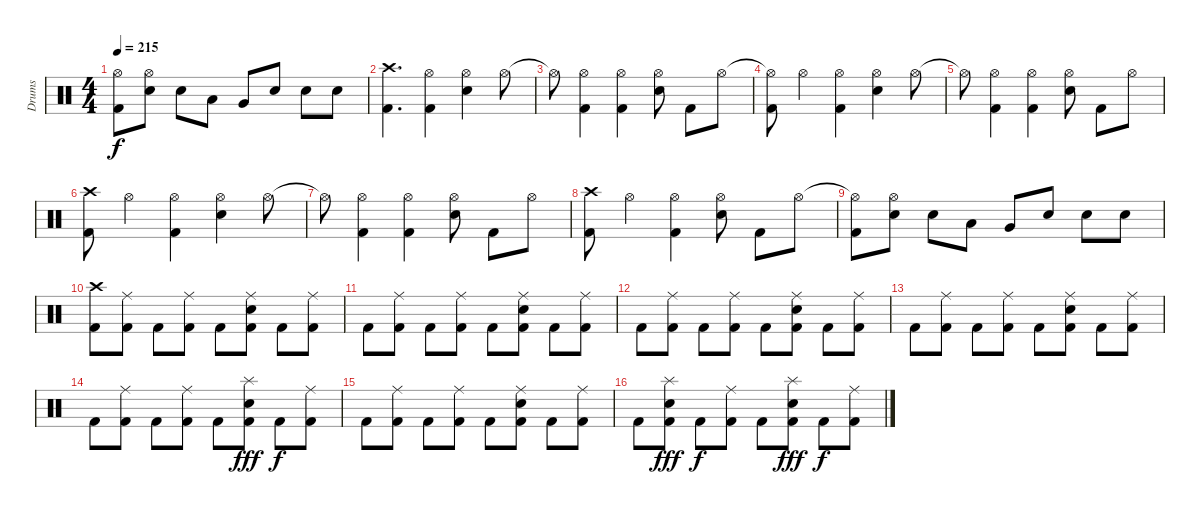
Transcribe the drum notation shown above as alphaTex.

\track ("Drums" "Drums") {instrument percussion}
\staff {score}
\articulation defaults
\ts (4 4)
\tempo 215
\clef neutral
\ks c
("Hi-Hat (open)"{t} "Kick (hit) 2").8{dy f} ("Hi-Hat (open)" "Snare (hit) 2").8 "Snare (hit) 2".8 "Low Tom (hit)".8 "Very Low Tom (hit)".8 "Snare (hit) 2".8 "Snare (hit) 2".8 "Snare (hit) 2".8 |
("Crash high (hit)" "Kick (hit) 2").4{d} ("Hi-Hat (open)" "Kick (hit) 2").4 ("Hi-Hat (open)" "Snare (hit) 2").4 "Hi-Hat (open)".8 |
"Hi-Hat (open)"{t}.8 ("Hi-Hat (open)" "Kick (hit) 2").4 ("Hi-Hat (open)" "Kick (hit) 2").4 ("Hi-Hat (open)" "Snare (hit) 2").8 "Kick (hit) 2".8 "Hi-Hat (open)".8 |
("Hi-Hat (open)"{t} "Kick (hit) 2").8 "Hi-Hat (open)".4 ("Hi-Hat (open)" "Kick (hit) 2").4 ("Hi-Hat (open)" "Snare (hit) 2").4 "Hi-Hat (open)".8 |
"Hi-Hat (open)"{t}.8 ("Hi-Hat (open)" "Kick (hit) 2").4 ("Hi-Hat (open)" "Kick (hit) 2").4 ("Hi-Hat (open)" "Snare (hit) 2").8 "Kick (hit) 2".8 "Hi-Hat (open)".8 |
("Crash high (hit)" "Kick (hit) 2").8 "Hi-Hat (open)".4 ("Hi-Hat (open)" "Kick (hit) 2").4 ("Hi-Hat (open)" "Snare (hit) 2").4 "Hi-Hat (open)".8 |
"Hi-Hat (open)"{t}.8 ("Hi-Hat (open)" "Kick (hit) 2").4 ("Hi-Hat (open)" "Kick (hit) 2").4 ("Hi-Hat (open)" "Snare (hit) 2").8 "Kick (hit) 2".8 "Hi-Hat (open)".8 |
("Crash high (hit)" "Kick (hit) 2").8 "Hi-Hat (open)".4 ("Hi-Hat (open)" "Kick (hit) 2").4 ("Hi-Hat (open)" "Snare (hit) 2").8 "Kick (hit) 2".8 "Hi-Hat (open)".8 |
("Hi-Hat (open)"{t} "Kick (hit) 2").8 ("Hi-Hat (open)" "Snare (hit) 2").8 "Snare (hit) 2".8 "Low Tom (hit)".8 "Very Low Tom (hit)".8 "Snare (hit) 2".8 "Snare (hit) 2".8 "Snare (hit) 2".8 |
("Crash high (hit)" "Kick (hit) 2").8 ("Ride (middle)" "Kick (hit) 2").8 "Kick (hit) 2".8 ("Ride (middle)" "Kick (hit) 2").8 "Kick (hit) 2".8 ("Ride (middle)" "Snare (hit) 2" "Kick (hit) 2").8 "Kick (hit) 2".8 ("Ride (middle)" "Kick (hit) 2").8 |
"Kick (hit) 2".8 ("Ride (middle)" "Kick (hit) 2").8 "Kick (hit) 2".8 ("Ride (middle)" "Kick (hit) 2").8 "Kick (hit) 2".8 ("Ride (middle)" "Snare (hit) 2" "Kick (hit) 2").8 "Kick (hit) 2".8 ("Ride (middle)" "Kick (hit) 2").8 |
"Kick (hit) 2".8 ("Ride (middle)" "Kick (hit) 2").8 "Kick (hit) 2".8 ("Ride (middle)" "Kick (hit) 2").8 "Kick (hit) 2".8 ("Ride (middle)" "Snare (hit) 2" "Kick (hit) 2").8 "Kick (hit) 2".8 ("Ride (middle)" "Kick (hit) 2").8 |
"Kick (hit) 2".8 ("Ride (middle)" "Kick (hit) 2").8 "Kick (hit) 2".8 ("Ride (middle)" "Kick (hit) 2").8 "Kick (hit) 2".8 ("Ride (middle)" "Snare (hit) 2" "Kick (hit) 2").8 "Kick (hit) 2".8 ("Ride (middle)" "Kick (hit) 2").8 |
"Kick (hit) 2".8 ("Ride (middle)" "Kick (hit) 2").8 "Kick (hit) 2".8 ("Ride (middle)" "Kick (hit) 2").8 "Kick (hit) 2".8 ("Splash (hit)" "Snare (hit) 2" "Kick (hit) 2").8{dy fff} "Kick (hit) 2".8{dy f} ("Ride (middle)" "Kick (hit) 2").8 |
"Kick (hit) 2".8 ("Ride (middle)" "Kick (hit) 2").8 "Kick (hit) 2".8 ("Ride (middle)" "Kick (hit) 2").8 "Kick (hit) 2".8 ("Ride (middle)" "Snare (hit) 2" "Kick (hit) 2").8 "Kick (hit) 2".8 ("Ride (middle)" "Kick (hit) 2").8 |
"Kick (hit) 2".8 ("Splash (hit)" "Snare (hit) 2" "Kick (hit) 2").8{dy fff} "Kick (hit) 2".8{dy f} ("Ride (middle)" "Kick (hit) 2").8 "Kick (hit) 2".8 ("Splash (hit)" "Snare (hit) 2" "Kick (hit) 2").8{dy fff} "Kick (hit) 2".8{dy f} ("Ride (middle)" "Kick (hit) 2").8
